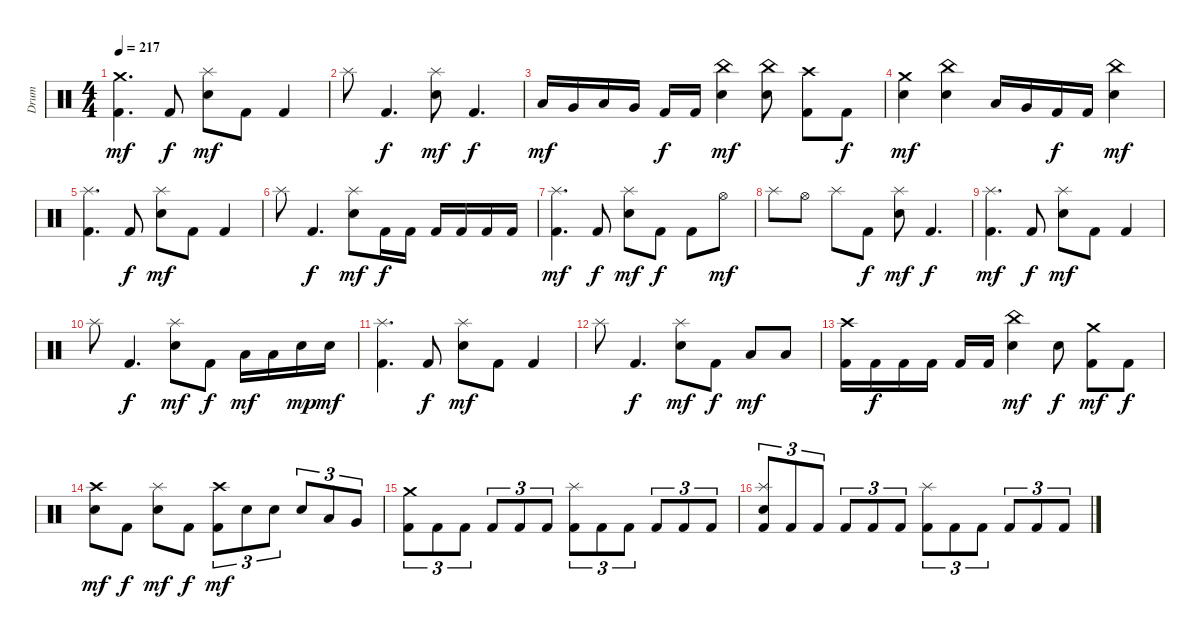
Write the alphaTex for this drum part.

\track ("Drum" "Drum") {instrument percussion}
\staff {score}
\articulation defaults
\ts (4 4)
\tempo 217
\clef neutral
\ks c
("Crash medium (hit)" "Kick (hit) 2").4{d dy mf} "Kick (hit) 2".8{dy f} ("Splash (hit)" "Electric Snare (hit)").8{dy mf} "Kick (hit) 2".8 "Kick (hit) 2".4 |
"Splash (hit)".8 "Kick (hit) 2".4{d dy f} ("Splash (hit)" "Electric Snare (hit)").8{dy mf} "Kick (hit) 2".4{d dy f} |
"Low Tom (hit)".16{dy mf} "Very Low Tom (hit)".16 "Low Tom (hit)".16 "Very Low Tom (hit)".16 "Kick (hit) 2".16{dy f} "Kick (hit) 2".16 ("China (hit)" "Electric Snare (hit)").4{dy mf} ("China (hit)" "Electric Snare (hit)").8 ("Crash high (hit)" "Kick (hit) 2").8 "Kick (hit) 2".8{dy f} |
("Crash medium (hit)" "Electric Snare (hit)").4{dy mf} ("China (hit)" "Electric Snare (hit)").4 "Low Tom (hit)".16 "Very Low Tom (hit)".16 "Kick (hit) 2".16{dy f} "Kick (hit) 2".16 ("China (hit)" "Electric Snare (hit)").4{dy mf} |
("Splash (hit)" "Kick (hit) 2").4{d} "Kick (hit) 2".8{dy f} ("Splash (hit)" "Electric Snare (hit)").8{dy mf} "Kick (hit) 2".8 "Kick (hit) 2".4 |
"Splash (hit)".8 "Kick (hit) 2".4{d dy f} ("Splash (hit)" "Electric Snare (hit)").8{dy mf} "Kick (hit) 2".16{dy f} "Kick (hit) 2".16 "Kick (hit) 2".16 "Kick (hit) 2".16 "Kick (hit) 2".16 "Kick (hit) 2".16 |
("Splash (hit)" "Kick (hit) 2").4{d dy mf} "Kick (hit) 2".8{dy f} ("Splash (hit)" "Electric Snare (hit)").8{dy mf} "Kick (hit) 2".8{dy f} "Kick (hit) 2".8 "Hi-Hat (open)".8{dy mf} |
"Splash (hit)".8 "Hi-Hat (open)".8 "Splash (hit)".8 "Kick (hit) 2".8{dy f} ("Splash (hit)" "Electric Snare (hit)").8{dy mf} "Kick (hit) 2".4{d dy f} |
("Splash (hit)" "Kick (hit) 2").4{d dy mf} "Kick (hit) 2".8{dy f} ("Splash (hit)" "Electric Snare (hit)").8{dy mf} "Kick (hit) 2".8 "Kick (hit) 2".4 |
"Splash (hit)".8 "Kick (hit) 2".4{d dy f} ("Splash (hit)" "Electric Snare (hit)").8{dy mf} "Kick (hit) 2".8{dy f} "Low Tom (hit)".16{dy mf} "Low Tom (hit)".16 "Electric Snare (hit)".16{dy mp} "Electric Snare (hit)".16{dy mf} |
("Splash (hit)" "Kick (hit) 2").4{d} "Kick (hit) 2".8{dy f} ("Splash (hit)" "Electric Snare (hit)").8{dy mf} "Kick (hit) 2".8 "Kick (hit) 2".4 |
"Splash (hit)".8 "Kick (hit) 2".4{d dy f} ("Splash (hit)" "Electric Snare (hit)").8{dy mf} "Kick (hit) 2".8{dy f} "Low Tom (hit)".8{dy mf} "Low Tom (hit)".8 |
("Crash high (hit)" "Kick (hit) 2").16 "Kick (hit) 2".16{dy f} "Kick (hit) 2".16 "Kick (hit) 2".16 "Kick (hit) 2".16 "Kick (hit) 2".16 ("China (hit)" "Electric Snare (hit)").4{dy mf} "Electric Snare (hit)".8{dy f} ("Crash medium (hit)" "Kick (hit) 2").8{dy mf} "Kick (hit) 2".8{dy f} |
("Crash high (hit)" "Electric Snare (hit)").8{dy mf} "Kick (hit) 2".8{dy f} ("Splash (hit)" "Electric Snare (hit)").8{dy mf} "Kick (hit) 2".8{dy f} ("Crash high (hit)" "Kick (hit) 2").8{tu (3 2) dy mf} "Electric Snare (hit)".8{tu (3 2)} "Electric Snare (hit)".8{tu (3 2)} "Electric Snare (hit)".8{tu (3 2)} "Low Tom (hit)".8{tu (3 2)} "Very Low Tom (hit)".8{tu (3 2)} |
("Crash medium (hit)" "Kick (hit) 2").8{tu (3 2)} "Kick (hit) 2".8{tu (3 2)} "Kick (hit) 2".8{tu (3 2)} "Kick (hit) 2".8{tu (3 2)} "Kick (hit) 2".8{tu (3 2)} "Kick (hit) 2".8{tu (3 2)} ("Splash (hit)" "Kick (hit) 2").8{tu (3 2)} "Kick (hit) 2".8{tu (3 2)} "Kick (hit) 2".8{tu (3 2)} "Kick (hit) 2".8{tu (3 2)} "Kick (hit) 2".8{tu (3 2)} "Kick (hit) 2".8{tu (3 2)} |
("Splash (hit)" "Electric Snare (hit)" "Kick (hit) 2").8{tu (3 2)} "Kick (hit) 2".8{tu (3 2)} "Kick (hit) 2".8{tu (3 2)} "Kick (hit) 2".8{tu (3 2)} "Kick (hit) 2".8{tu (3 2)} "Kick (hit) 2".8{tu (3 2)} ("Splash (hit)" "Kick (hit) 2").8{tu (3 2)} "Kick (hit) 2".8{tu (3 2)} "Kick (hit) 2".8{tu (3 2)} "Kick (hit) 2".8{tu (3 2)} "Kick (hit) 2".8{tu (3 2)} "Kick (hit) 2".8{tu (3 2)}
